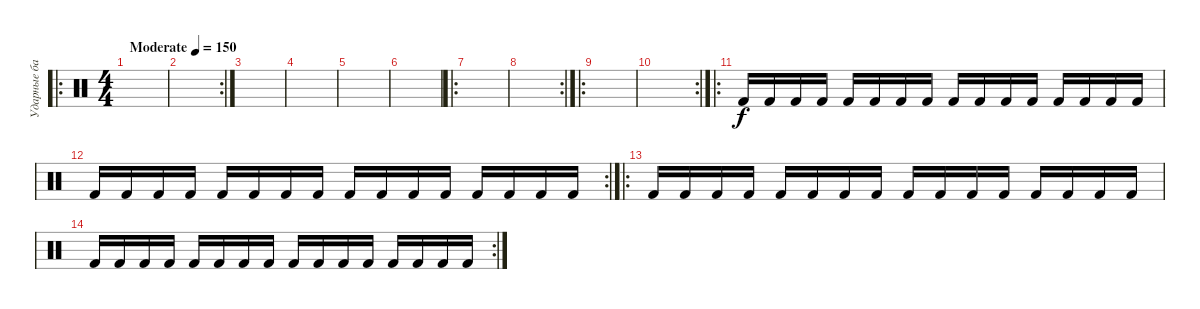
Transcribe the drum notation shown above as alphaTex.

\track ("Ударные бас бочка" "Ударные ба") {instrument percussion}
\staff {score}
\articulation defaults
\ro
\ts (4 4)
\tempo (150 "Moderate")
\clef neutral
\ks c
|
\rc 2
|
|
|
|
|
\ro
|
\rc 2
|
\ro
|
\rc 2
|
\ro "Kick (hit) 2".16 "Kick (hit) 2".16 "Kick (hit) 2".16 "Kick (hit) 2".16 "Kick (hit) 2".16 "Kick (hit) 2".16 "Kick (hit) 2".16 "Kick (hit) 2".16 "Kick (hit) 2".16 "Kick (hit) 2".16 "Kick (hit) 2".16 "Kick (hit) 2".16 "Kick (hit) 2".16 "Kick (hit) 2".16 "Kick (hit) 2".16 "Kick (hit) 2".16
|
\rc 2 "Kick (hit) 2".16 "Kick (hit) 2".16 "Kick (hit) 2".16 "Kick (hit) 2".16 "Kick (hit) 2".16 "Kick (hit) 2".16 "Kick (hit) 2".16 "Kick (hit) 2".16 "Kick (hit) 2".16 "Kick (hit) 2".16 "Kick (hit) 2".16 "Kick (hit) 2".16 "Kick (hit) 2".16 "Kick (hit) 2".16 "Kick (hit) 2".16 "Kick (hit) 2".16
|
\ro "Kick (hit) 2".16 "Kick (hit) 2".16 "Kick (hit) 2".16 "Kick (hit) 2".16 "Kick (hit) 2".16 "Kick (hit) 2".16 "Kick (hit) 2".16 "Kick (hit) 2".16 "Kick (hit) 2".16 "Kick (hit) 2".16 "Kick (hit) 2".16 "Kick (hit) 2".16 "Kick (hit) 2".16 "Kick (hit) 2".16 "Kick (hit) 2".16 "Kick (hit) 2".16
|
\rc 2 "Kick (hit) 2".16 "Kick (hit) 2".16 "Kick (hit) 2".16 "Kick (hit) 2".16 "Kick (hit) 2".16 "Kick (hit) 2".16 "Kick (hit) 2".16 "Kick (hit) 2".16 "Kick (hit) 2".16 "Kick (hit) 2".16 "Kick (hit) 2".16 "Kick (hit) 2".16 "Kick (hit) 2".16 "Kick (hit) 2".16 "Kick (hit) 2".16 "Kick (hit) 2".16
